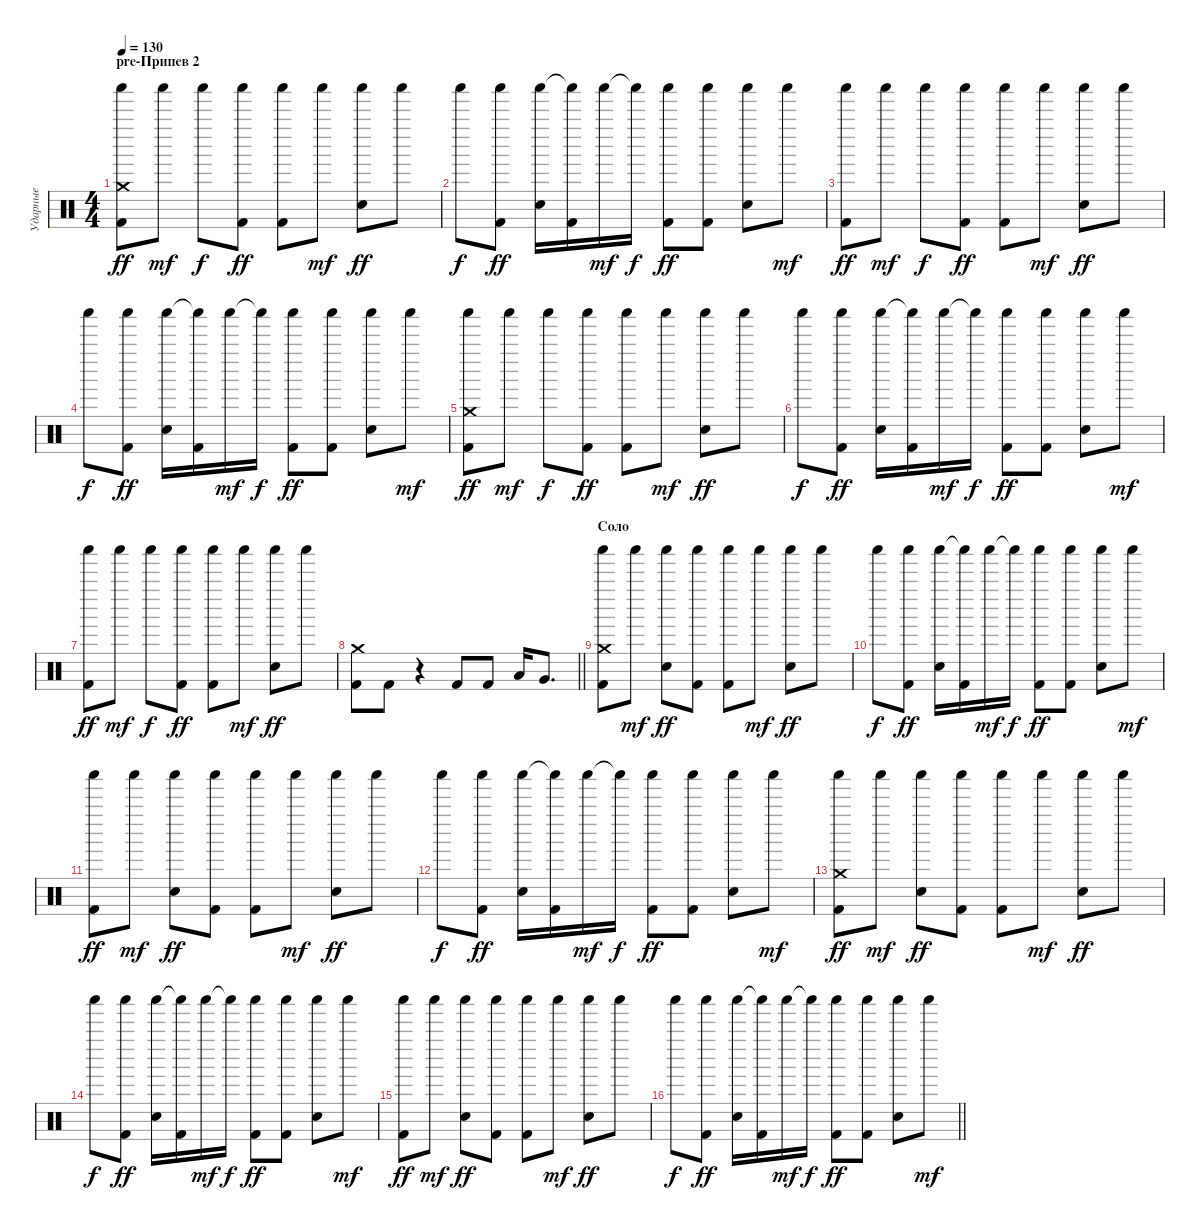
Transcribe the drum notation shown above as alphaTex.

\track ("Ударные" "Ударные") {instrument percussion}
\staff {score}
\articulation defaults
\ts (4 4)
\section ("" "pre-Припев 2")
\tempo 130
\clef neutral
\ks c
("Shaker (hit)" "Kick (hit) 2" "Crash medium (hit)").8{dy ff} "Shaker (hit)".8{dy mf} "Shaker (hit)".8{dy f} ("Shaker (hit)" "Kick (hit) 2").8{dy ff} ("Shaker (hit)" "Kick (hit) 2").8 "Shaker (hit)".8{dy mf} ("Shaker (hit)" "Snare (hit) 2").8{dy ff} "Shaker (hit)".8 |
"Shaker (hit)".8{dy f} ("Shaker (hit)" "Kick (hit) 2").8{dy ff} ("Shaker (hit)" "Snare (hit) 2").16 ("Shaker (hit)"{t} "Kick (hit) 2").16 "Shaker (hit)".16{dy mf} "Shaker (hit)"{t}.16{dy f} ("Shaker (hit)" "Kick (hit) 2").8{dy ff} ("Shaker (hit)" "Kick (hit) 2").8 ("Shaker (hit)" "Snare (hit) 2").8 "Shaker (hit)".8{dy mf} |
("Shaker (hit)" "Kick (hit) 2").8{dy ff} "Shaker (hit)".8{dy mf} "Shaker (hit)".8{dy f} ("Shaker (hit)" "Kick (hit) 2").8{dy ff} ("Shaker (hit)" "Kick (hit) 2").8 "Shaker (hit)".8{dy mf} ("Shaker (hit)" "Snare (hit) 2").8{dy ff} "Shaker (hit)".8 |
"Shaker (hit)".8{dy f} ("Shaker (hit)" "Kick (hit) 2").8{dy ff} ("Shaker (hit)" "Snare (hit) 2").16 ("Shaker (hit)"{t} "Kick (hit) 2").16 "Shaker (hit)".16{dy mf} "Shaker (hit)"{t}.16{dy f} ("Shaker (hit)" "Kick (hit) 2").8{dy ff} ("Shaker (hit)" "Kick (hit) 2").8 ("Shaker (hit)" "Snare (hit) 2").8 "Shaker (hit)".8{dy mf} |
("Shaker (hit)" "Kick (hit) 2" "Crash medium (hit)").8{dy ff} "Shaker (hit)".8{dy mf} "Shaker (hit)".8{dy f} ("Shaker (hit)" "Kick (hit) 2").8{dy ff} ("Shaker (hit)" "Kick (hit) 2").8 "Shaker (hit)".8{dy mf} ("Shaker (hit)" "Snare (hit) 2").8{dy ff} "Shaker (hit)".8 |
"Shaker (hit)".8{dy f} ("Shaker (hit)" "Kick (hit) 2").8{dy ff} ("Shaker (hit)" "Snare (hit) 2").16 ("Shaker (hit)"{t} "Kick (hit) 2").16 "Shaker (hit)".16{dy mf} "Shaker (hit)"{t}.16{dy f} ("Shaker (hit)" "Kick (hit) 2").8{dy ff} ("Shaker (hit)" "Kick (hit) 2").8 ("Shaker (hit)" "Snare (hit) 2").8 "Shaker (hit)".8{dy mf} |
("Shaker (hit)" "Kick (hit) 2").8{dy ff} "Shaker (hit)".8{dy mf} "Shaker (hit)".8{dy f} ("Shaker (hit)" "Kick (hit) 2").8{dy ff} ("Shaker (hit)" "Kick (hit) 2").8 "Shaker (hit)".8{dy mf} ("Shaker (hit)" "Snare (hit) 2").8{dy ff} "Shaker (hit)".8 |
\barLineRight lightlight
("Kick (hit) 2" "Crash medium (hit)").8 "Kick (hit) 2".8 r.4 "Kick (hit) 2".8 "Kick (hit) 2".8 "Low Tom (hit)".16 "Very Low Tom (hit)".8{d} |
\section ("" "Соло")
("Shaker (hit)" "Kick (hit) 2" "Crash medium (hit)").8 "Shaker (hit)".8{dy mf} ("Shaker (hit)" "Snare (hit) 2").8{dy ff} ("Shaker (hit)" "Kick (hit) 2").8 ("Shaker (hit)" "Kick (hit) 2").8 "Shaker (hit)".8{dy mf} ("Shaker (hit)" "Snare (hit) 2").8{dy ff} "Shaker (hit)".8 |
"Shaker (hit)".8{dy f} ("Shaker (hit)" "Kick (hit) 2").8{dy ff} ("Shaker (hit)" "Snare (hit) 2").16 ("Shaker (hit)"{t} "Kick (hit) 2").16 "Shaker (hit)".16{dy mf} "Shaker (hit)"{t}.16{dy f} ("Shaker (hit)" "Kick (hit) 2").8{dy ff} ("Shaker (hit)" "Kick (hit) 2").8 ("Shaker (hit)" "Snare (hit) 2").8 "Shaker (hit)".8{dy mf} |
("Shaker (hit)" "Kick (hit) 2").8{dy ff} "Shaker (hit)".8{dy mf} ("Shaker (hit)" "Snare (hit) 2").8{dy ff} ("Shaker (hit)" "Kick (hit) 2").8 ("Shaker (hit)" "Kick (hit) 2").8 "Shaker (hit)".8{dy mf} ("Shaker (hit)" "Snare (hit) 2").8{dy ff} "Shaker (hit)".8 |
"Shaker (hit)".8{dy f} ("Shaker (hit)" "Kick (hit) 2").8{dy ff} ("Shaker (hit)" "Snare (hit) 2").16 ("Shaker (hit)"{t} "Kick (hit) 2").16 "Shaker (hit)".16{dy mf} "Shaker (hit)"{t}.16{dy f} ("Shaker (hit)" "Kick (hit) 2").8{dy ff} ("Shaker (hit)" "Kick (hit) 2").8 ("Shaker (hit)" "Snare (hit) 2").8 "Shaker (hit)".8{dy mf} |
("Shaker (hit)" "Kick (hit) 2" "Crash medium (hit)").8{dy ff} "Shaker (hit)".8{dy mf} ("Shaker (hit)" "Snare (hit) 2").8{dy ff} ("Shaker (hit)" "Kick (hit) 2").8 ("Shaker (hit)" "Kick (hit) 2").8 "Shaker (hit)".8{dy mf} ("Shaker (hit)" "Snare (hit) 2").8{dy ff} "Shaker (hit)".8 |
"Shaker (hit)".8{dy f} ("Shaker (hit)" "Kick (hit) 2").8{dy ff} ("Shaker (hit)" "Snare (hit) 2").16 ("Shaker (hit)"{t} "Kick (hit) 2").16 "Shaker (hit)".16{dy mf} "Shaker (hit)"{t}.16{dy f} ("Shaker (hit)" "Kick (hit) 2").8{dy ff} ("Shaker (hit)" "Kick (hit) 2").8 ("Shaker (hit)" "Snare (hit) 2").8 "Shaker (hit)".8{dy mf} |
("Shaker (hit)" "Kick (hit) 2").8{dy ff} "Shaker (hit)".8{dy mf} ("Shaker (hit)" "Snare (hit) 2").8{dy ff} ("Shaker (hit)" "Kick (hit) 2").8 ("Shaker (hit)" "Kick (hit) 2").8 "Shaker (hit)".8{dy mf} ("Shaker (hit)" "Snare (hit) 2").8{dy ff} "Shaker (hit)".8 |
\barLineRight lightlight "Shaker (hit)".8{dy f}
("Shaker (hit)" "Kick (hit) 2").8{dy ff} ("Shaker (hit)" "Snare (hit) 2").16 ("Shaker (hit)"{t} "Kick (hit) 2").16 "Shaker (hit)".16{dy mf} "Shaker (hit)"{t}.16{dy f} ("Shaker (hit)" "Kick (hit) 2").8{dy ff} ("Shaker (hit)" "Kick (hit) 2").8 ("Shaker (hit)" "Snare (hit) 2").8 "Shaker (hit)".8{dy mf}
